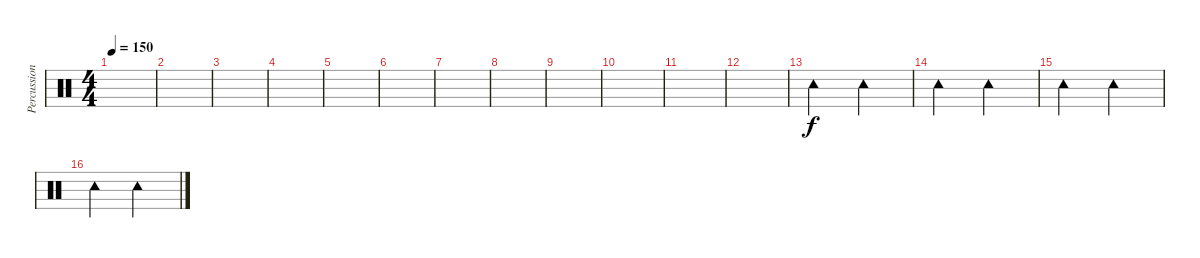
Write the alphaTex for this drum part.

\track ("Percussion" "Percussion") {instrument percussion}
\staff {score}
\articulation defaults
\ts (4 4)
\tempo 150
\clef neutral
\ks c
|
|
|
|
|
|
|
|
|
|
|
|
"Tambourine (hit)".2 "Tambourine (hit)".2 |
"Tambourine (hit)".2 "Tambourine (hit)".2 |
"Tambourine (hit)".2 "Tambourine (hit)".2 |
"Tambourine (hit)".2 "Tambourine (hit)".2
